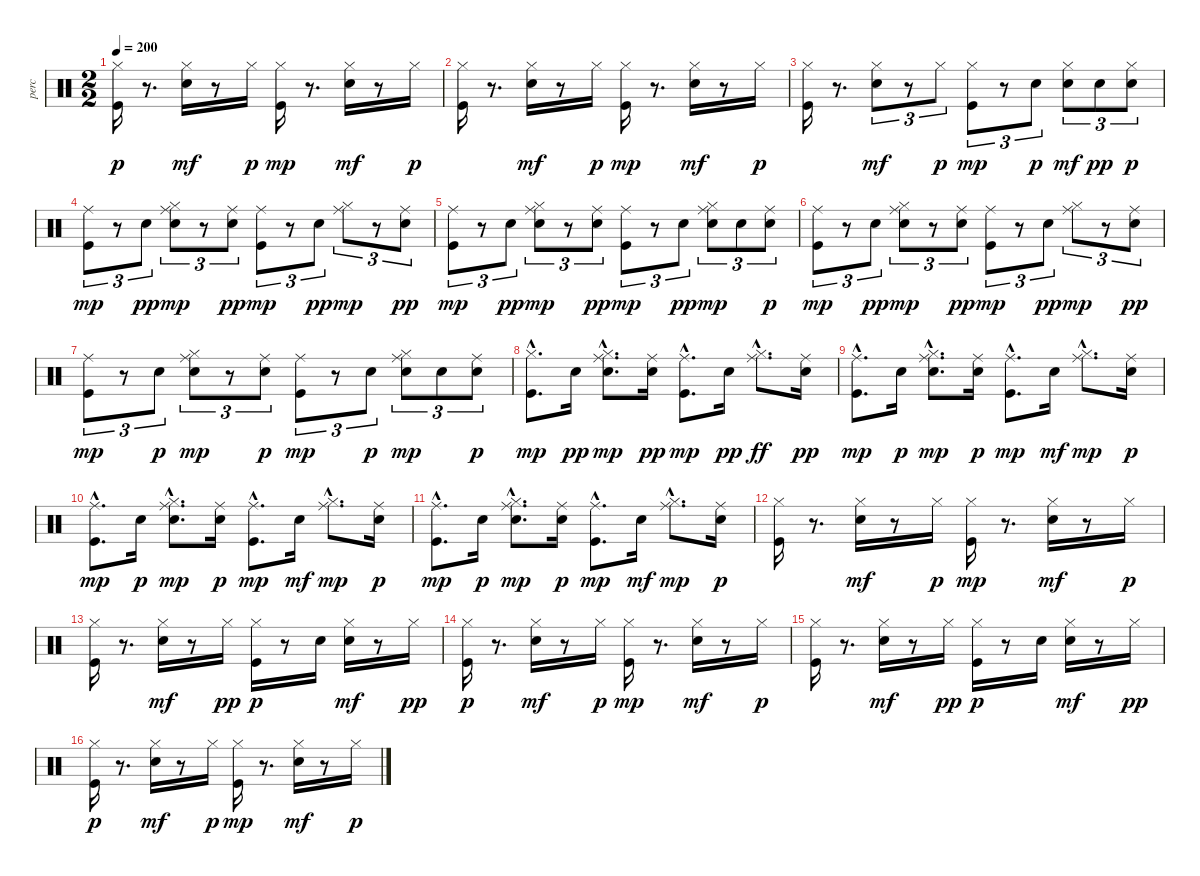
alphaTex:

\track ("perc" "perc") {instrument percussion}
\staff {score}
\articulation defaults
\ts (2 2)
\tempo 200
\clef neutral
\ks c
("Kick (hit)" "Hi-Hat (closed)").16{dy p} r.8{d} ("Snare (hit) 2" "Hi-Hat (closed)").16{dy mf} r.8 "Hi-Hat (closed)".16{dy p} ("Kick (hit)" "Hi-Hat (closed)").16{dy mp} r.8{d} ("Snare (hit) 2" "Hi-Hat (closed)").16{dy mf} r.8 "Hi-Hat (closed)".16{dy p} |
("Kick (hit)" "Hi-Hat (closed)").16 r.8{d} ("Snare (hit) 2" "Hi-Hat (closed)").16{dy mf} r.8 "Hi-Hat (closed)".16{dy p} ("Kick (hit)" "Hi-Hat (closed)").16{dy mp} r.8{d} ("Snare (hit) 2" "Hi-Hat (closed)").16{dy mf} r.8 "Hi-Hat (closed)".16{dy p} |
("Kick (hit)" "Hi-Hat (closed)").16 r.8{d} ("Snare (hit) 2" "Hi-Hat (closed)").8{tu (3 2) dy mf} r.8{tu (3 2)} "Hi-Hat (closed)".8{tu (3 2) dy p} ("Kick (hit)" "Hi-Hat (closed)").8{tu (3 2) dy mp} r.8{tu (3 2)} "Snare (hit) 2".8{tu (3 2) dy p} ("Snare (hit) 2" "Hi-Hat (closed)").8{tu (3 2) dy mf} "Snare (hit) 2".8{tu (3 2) dy pp} ("Snare (hit) 2" "Hi-Hat (closed)").8{tu (3 2) dy p} |
("Kick (hit)" "Ride (middle)").8{tu (3 2) dy mp} r.8{tu (3 2)} "Snare (hit) 2".8{tu (3 2) dy pp} ("Snare (hit) 2" "Hi-Hat (closed)" "Ride (middle)").8{tu (3 2) dy mp} r.8{tu (3 2)} ("Snare (hit) 2" "Ride (middle)").8{tu (3 2) dy pp} ("Kick (hit)" "Ride (middle)").8{tu (3 2) dy mp} r.8{tu (3 2)} "Snare (hit) 2".8{tu (3 2) dy pp} ("Hi-Hat (closed)" "Ride (middle)").8{tu (3 2) dy mp} r.8{tu (3 2)} ("Snare (hit) 2" "Ride (middle)").8{tu (3 2) dy pp} |
("Kick (hit)" "Ride (middle)").8{tu (3 2) dy mp} r.8{tu (3 2)} "Snare (hit) 2".8{tu (3 2) dy pp} ("Snare (hit) 2" "Hi-Hat (closed)" "Ride (middle)").8{tu (3 2) dy mp} r.8{tu (3 2)} ("Snare (hit) 2" "Ride (middle)").8{tu (3 2) dy pp} ("Kick (hit)" "Ride (middle)").8{tu (3 2) dy mp} r.8{tu (3 2)} "Snare (hit) 2".8{tu (3 2) dy pp} ("Snare (hit) 2" "Hi-Hat (closed)" "Ride (middle)").8{tu (3 2) dy mp} "Snare (hit) 2".8{tu (3 2)} ("Snare (hit) 2" "Ride (middle)").8{tu (3 2) dy p} |
("Kick (hit)" "Ride (middle)").8{tu (3 2) dy mp} r.8{tu (3 2)} "Snare (hit) 2".8{tu (3 2) dy pp} ("Snare (hit) 2" "Hi-Hat (closed)" "Ride (middle)").8{tu (3 2) dy mp} r.8{tu (3 2)} ("Snare (hit) 2" "Ride (middle)").8{tu (3 2) dy pp} ("Kick (hit)" "Ride (middle)").8{tu (3 2) dy mp} r.8{tu (3 2)} "Snare (hit) 2".8{tu (3 2) dy pp} ("Hi-Hat (closed)" "Ride (middle)").8{tu (3 2) dy mp} r.8{tu (3 2)} ("Snare (hit) 2" "Ride (middle)").8{tu (3 2) dy pp} |
("Kick (hit)" "Ride (middle)").8{tu (3 2) dy mp} r.8{tu (3 2)} "Snare (hit) 2".8{tu (3 2) dy p} ("Snare (hit) 2" "Hi-Hat (closed)" "Ride (middle)").8{tu (3 2) dy mp} r.8{tu (3 2)} ("Snare (hit) 2" "Ride (middle)").8{tu (3 2) dy p} ("Kick (hit)" "Ride (middle)").8{tu (3 2) dy mp} r.8{tu (3 2)} "Snare (hit) 2".8{tu (3 2) dy p} ("Snare (hit) 2" "Hi-Hat (closed)" "Ride (middle)").8{tu (3 2) dy mp} "Snare (hit) 2".8{tu (3 2)} ("Snare (hit) 2" "Ride (middle)").8{tu (3 2) dy p} |
("Kick (hit)"{hac} "Hi-Hat (closed)"{hac}).8{d dy mp} "Snare (hit) 2".16{dy pp} ("Snare (hit) 2"{hac} "Hi-Hat (closed)"{hac} "Ride (middle)"{hac}).8{d dy mp} ("Snare (hit) 2" "Ride (middle)").16{dy pp} ("Kick (hit)"{hac} "Ride (middle)"{hac}).8{d dy mp} "Snare (hit) 2".16{dy pp} ("Hi-Hat (closed)"{hac} "Ride (middle)"{hac}).8{d dy ff} ("Snare (hit) 2" "Ride (middle)").16{dy pp} |
("Kick (hit)"{hac} "Ride (middle)"{hac}).8{d dy mp} "Snare (hit) 2".16{dy p} ("Snare (hit) 2"{hac} "Hi-Hat (closed)"{hac} "Ride (middle)"{hac}).8{d dy mp} ("Snare (hit) 2" "Ride (middle)").16{dy p} ("Kick (hit)"{hac} "Ride (middle)"{hac}).8{d dy mp} "Snare (hit) 2".16{dy mf} ("Hi-Hat (closed)"{hac} "Ride (middle)"{hac}).8{d dy mp} ("Snare (hit) 2" "Ride (middle)").16{dy p} |
("Kick (hit)"{hac} "Ride (middle)"{hac}).8{d dy mp} "Snare (hit) 2".16{dy p} ("Snare (hit) 2"{hac} "Hi-Hat (closed)"{hac} "Ride (middle)"{hac}).8{d dy mp} ("Snare (hit) 2" "Ride (middle)").16{dy p} ("Kick (hit)"{hac} "Ride (middle)"{hac}).8{d dy mp} "Snare (hit) 2".16{dy mf} ("Hi-Hat (closed)"{hac} "Ride (middle)"{hac}).8{d dy mp} ("Snare (hit) 2" "Ride (middle)").16{dy p} |
("Kick (hit)"{hac} "Ride (middle)"{hac}).8{d dy mp} "Snare (hit) 2".16{dy p} ("Snare (hit) 2"{hac} "Hi-Hat (closed)"{hac} "Ride (middle)"{hac}).8{d dy mp} ("Snare (hit) 2" "Ride (middle)").16{dy p} ("Kick (hit)"{hac} "Ride (middle)"{hac}).8{d dy mp} "Snare (hit) 2".16{dy mf} ("Hi-Hat (closed)"{hac} "Ride (middle)"{hac}).8{d dy mp} ("Snare (hit) 2" "Ride (middle)").16{dy p} |
("Kick (hit)" "Hi-Hat (closed)").16 r.8{d} ("Snare (hit) 2" "Hi-Hat (closed)").16{dy mf} r.8 "Hi-Hat (closed)".16{dy p} ("Kick (hit)" "Hi-Hat (closed)").16{dy mp} r.8{d} ("Snare (hit) 2" "Hi-Hat (closed)").16{dy mf} r.8 "Hi-Hat (closed)".16{dy p} |
("Kick (hit)" "Hi-Hat (closed)").16 r.8{d} ("Snare (hit) 2" "Hi-Hat (closed)").16{dy mf} r.8 "Hi-Hat (closed)".16{dy pp} ("Kick (hit)" "Hi-Hat (closed)").16{dy p} r.8 "Snare (hit) 2".16 ("Snare (hit) 2" "Hi-Hat (closed)").16{dy mf} r.8 "Hi-Hat (closed)".16{dy pp} |
("Kick (hit)" "Hi-Hat (closed)").16{dy p} r.8{d} ("Snare (hit) 2" "Hi-Hat (closed)").16{dy mf} r.8 "Hi-Hat (closed)".16{dy p} ("Kick (hit)" "Hi-Hat (closed)").16{dy mp} r.8{d} ("Snare (hit) 2" "Hi-Hat (closed)").16{dy mf} r.8 "Hi-Hat (closed)".16{dy p} |
("Kick (hit)" "Hi-Hat (closed)").16 r.8{d} ("Snare (hit) 2" "Hi-Hat (closed)").16{dy mf} r.8 "Hi-Hat (closed)".16{dy pp} ("Kick (hit)" "Hi-Hat (closed)").16{dy p} r.8 "Snare (hit) 2".16 ("Snare (hit) 2" "Hi-Hat (closed)").16{dy mf} r.8 "Hi-Hat (closed)".16{dy pp} |
("Kick (hit)" "Hi-Hat (closed)").16{dy p} r.8{d} ("Snare (hit) 2" "Hi-Hat (closed)").16{dy mf} r.8 "Hi-Hat (closed)".16{dy p} ("Kick (hit)" "Hi-Hat (closed)").16{dy mp} r.8{d} ("Snare (hit) 2" "Hi-Hat (closed)").16{dy mf} r.8 "Hi-Hat (closed)".16{dy p}
